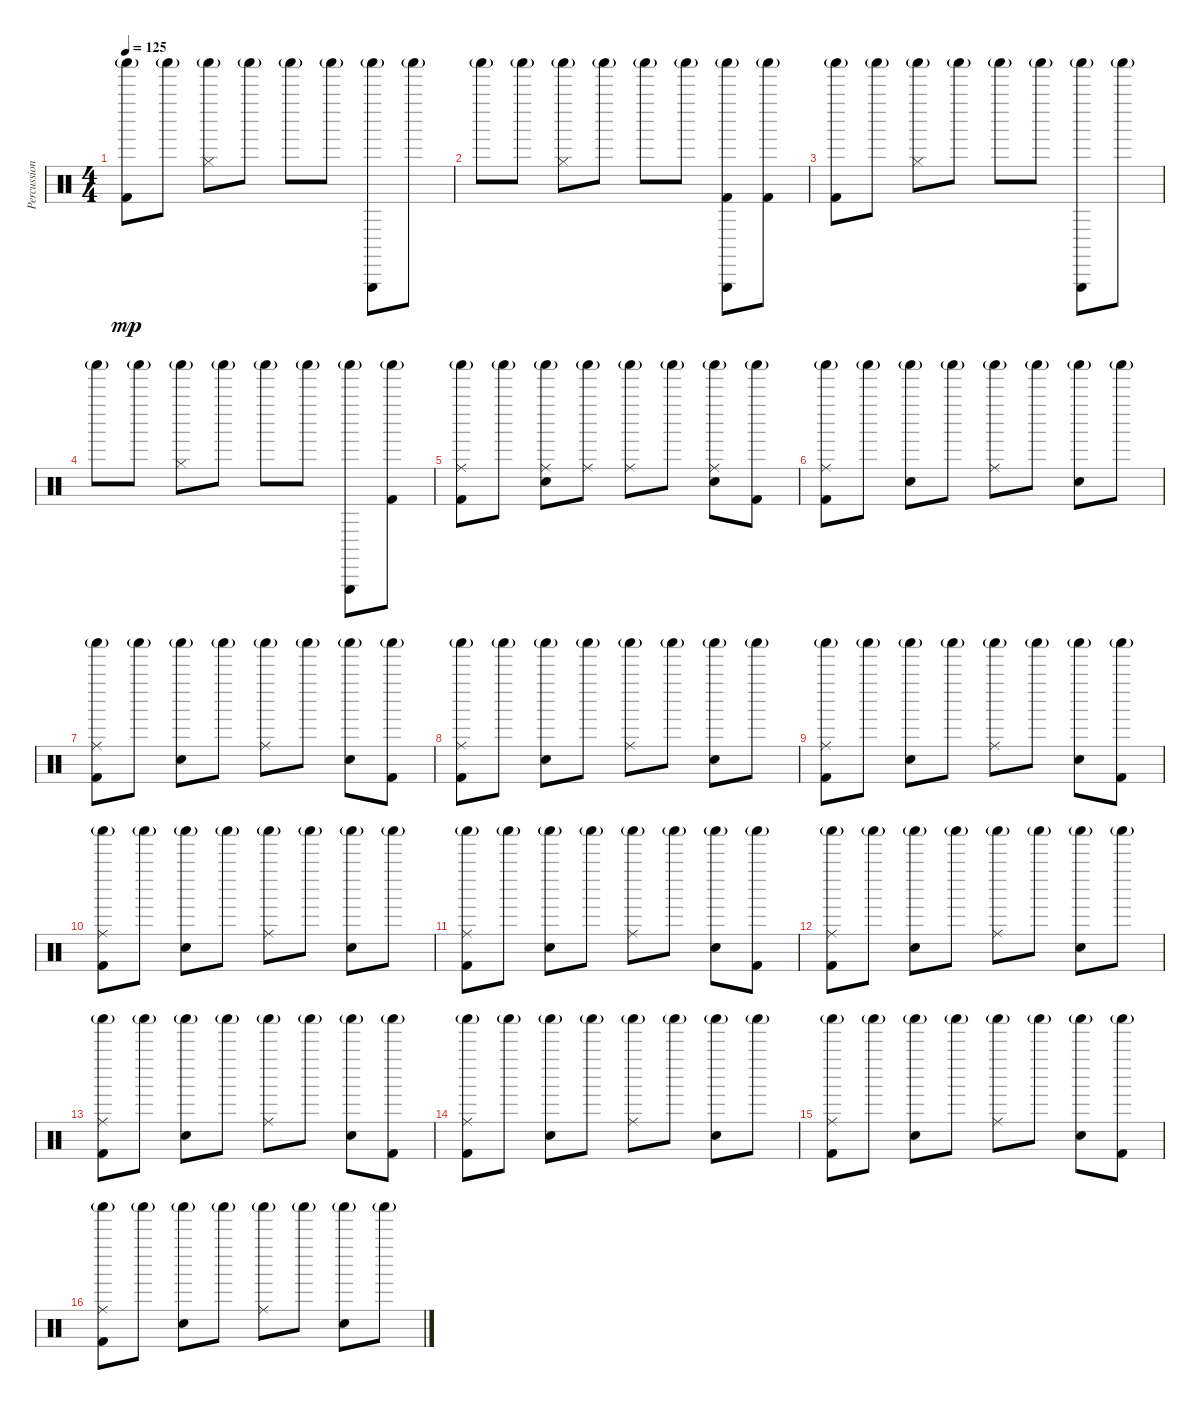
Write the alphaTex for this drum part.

\track ("Percussion" "Percussion") {instrument percussion}
\staff {score}
\articulation defaults
\ts (4 4)
\tempo 125
\clef neutral
\ks c
("Shaker (hit)"{g} "Kick (hit) 2").8{dy mp} "Shaker (hit)"{g}.8 ("Hi-Hat (closed)" "Shaker (hit)"{g}).8 "Shaker (hit)"{g}.8 "Shaker (hit)"{g}.8 "Shaker (hit)"{g}.8 ("Triangle (hit)" "Shaker (hit)"{g}).8 "Shaker (hit)"{g}.8 |
"Shaker (hit)"{g}.8 "Shaker (hit)"{g}.8 ("Hi-Hat (closed)" "Shaker (hit)"{g}).8 "Shaker (hit)"{g}.8 "Shaker (hit)"{g}.8 "Shaker (hit)"{g}.8 ("Triangle (hit)" "Shaker (hit)"{g} "Kick (hit) 2").8 ("Shaker (hit)"{g} "Kick (hit) 2").8 |
("Shaker (hit)"{g} "Kick (hit) 2").8 "Shaker (hit)"{g}.8 ("Hi-Hat (closed)" "Shaker (hit)"{g}).8 "Shaker (hit)"{g}.8 "Shaker (hit)"{g}.8 "Shaker (hit)"{g}.8 ("Triangle (hit)" "Shaker (hit)"{g}).8 "Shaker (hit)"{g}.8 |
"Shaker (hit)"{g}.8 "Shaker (hit)"{g}.8 ("Hi-Hat (closed)" "Shaker (hit)"{g}).8 "Shaker (hit)"{g}.8 "Shaker (hit)"{g}.8 "Shaker (hit)"{g}.8 ("Triangle (hit)" "Shaker (hit)"{g}).8 ("Shaker (hit)"{g} "Kick (hit) 2").8 |
("Ride (middle)" "Shaker (hit)"{g} "Kick (hit) 2").8 "Shaker (hit)"{g}.8 ("Ride (middle)" "Shaker (hit)"{g} "Electric Snare (hit)").8 ("Ride (middle)" "Shaker (hit)"{g}).8 ("Ride (middle)" "Shaker (hit)"{g}).8 "Shaker (hit)"{g}.8 ("Ride (middle)" "Shaker (hit)"{g} "Electric Snare (hit)").8 ("Shaker (hit)"{g} "Kick (hit) 2").8 |
("Ride (middle)" "Shaker (hit)"{g} "Kick (hit) 2").8 "Shaker (hit)"{g}.8 ("Shaker (hit)"{g} "Electric Snare (hit)").8 "Shaker (hit)"{g}.8 ("Ride (middle)" "Shaker (hit)"{g}).8 "Shaker (hit)"{g}.8 ("Shaker (hit)"{g} "Electric Snare (hit)").8 "Shaker (hit)"{g}.8 |
("Ride (middle)" "Shaker (hit)"{g} "Kick (hit) 2").8 "Shaker (hit)"{g}.8 ("Shaker (hit)"{g} "Electric Snare (hit)").8 "Shaker (hit)"{g}.8 ("Ride (middle)" "Shaker (hit)"{g}).8 "Shaker (hit)"{g}.8 ("Shaker (hit)"{g} "Electric Snare (hit)").8 ("Shaker (hit)"{g} "Kick (hit) 2").8 |
("Ride (middle)" "Shaker (hit)"{g} "Kick (hit) 2").8 "Shaker (hit)"{g}.8 ("Shaker (hit)"{g} "Electric Snare (hit)").8 "Shaker (hit)"{g}.8 ("Ride (middle)" "Shaker (hit)"{g}).8 "Shaker (hit)"{g}.8 ("Shaker (hit)"{g} "Electric Snare (hit)").8 "Shaker (hit)"{g}.8 |
("Ride (middle)" "Shaker (hit)"{g} "Kick (hit) 2").8 "Shaker (hit)"{g}.8 ("Shaker (hit)"{g} "Electric Snare (hit)").8 "Shaker (hit)"{g}.8 ("Ride (middle)" "Shaker (hit)"{g}).8 "Shaker (hit)"{g}.8 ("Shaker (hit)"{g} "Electric Snare (hit)").8 ("Shaker (hit)"{g} "Kick (hit) 2").8 |
("Ride (middle)" "Shaker (hit)"{g} "Kick (hit) 2").8 "Shaker (hit)"{g}.8 ("Shaker (hit)"{g} "Electric Snare (hit)").8 "Shaker (hit)"{g}.8 ("Ride (middle)" "Shaker (hit)"{g}).8 "Shaker (hit)"{g}.8 ("Shaker (hit)"{g} "Electric Snare (hit)").8 "Shaker (hit)"{g}.8 |
("Ride (middle)" "Shaker (hit)"{g} "Kick (hit) 2").8 "Shaker (hit)"{g}.8 ("Shaker (hit)"{g} "Electric Snare (hit)").8 "Shaker (hit)"{g}.8 ("Ride (middle)" "Shaker (hit)"{g}).8 "Shaker (hit)"{g}.8 ("Shaker (hit)"{g} "Electric Snare (hit)").8 ("Shaker (hit)"{g} "Kick (hit) 2").8 |
("Ride (middle)" "Shaker (hit)"{g} "Kick (hit) 2").8 "Shaker (hit)"{g}.8 ("Shaker (hit)"{g} "Electric Snare (hit)").8 "Shaker (hit)"{g}.8 ("Ride (middle)" "Shaker (hit)"{g}).8 "Shaker (hit)"{g}.8 ("Shaker (hit)"{g} "Electric Snare (hit)").8 "Shaker (hit)"{g}.8 |
("Ride (middle)" "Shaker (hit)"{g} "Kick (hit) 2").8 "Shaker (hit)"{g}.8 ("Shaker (hit)"{g} "Electric Snare (hit)").8 "Shaker (hit)"{g}.8 ("Ride (middle)" "Shaker (hit)"{g}).8 "Shaker (hit)"{g}.8 ("Shaker (hit)"{g} "Electric Snare (hit)").8 ("Shaker (hit)"{g} "Kick (hit) 2").8 |
("Ride (middle)" "Shaker (hit)"{g} "Kick (hit) 2").8 "Shaker (hit)"{g}.8 ("Shaker (hit)"{g} "Electric Snare (hit)").8 "Shaker (hit)"{g}.8 ("Ride (middle)" "Shaker (hit)"{g}).8 "Shaker (hit)"{g}.8 ("Shaker (hit)"{g} "Electric Snare (hit)").8 "Shaker (hit)"{g}.8 |
("Ride (middle)" "Shaker (hit)"{g} "Kick (hit) 2").8 "Shaker (hit)"{g}.8 ("Shaker (hit)"{g} "Electric Snare (hit)").8 "Shaker (hit)"{g}.8 ("Ride (middle)" "Shaker (hit)"{g}).8 "Shaker (hit)"{g}.8 ("Shaker (hit)"{g} "Electric Snare (hit)").8 ("Shaker (hit)"{g} "Kick (hit) 2").8 |
("Ride (middle)" "Shaker (hit)"{g} "Kick (hit) 2").8 "Shaker (hit)"{g}.8 ("Shaker (hit)"{g} "Electric Snare (hit)").8 "Shaker (hit)"{g}.8 ("Ride (middle)" "Shaker (hit)"{g}).8 "Shaker (hit)"{g}.8 ("Shaker (hit)"{g} "Electric Snare (hit)").8 "Shaker (hit)"{g}.8
